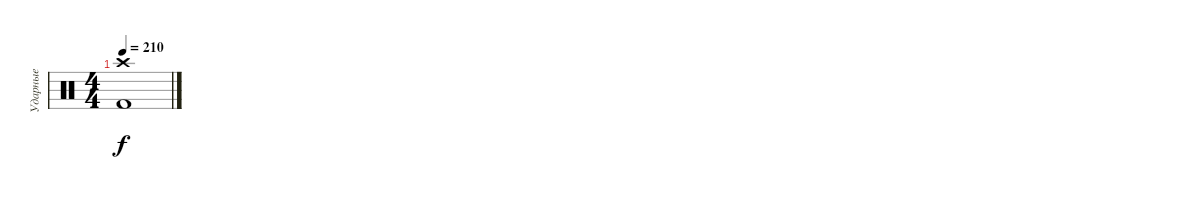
\track ("Ударные" "Ударные") {instrument percussion}
\staff {score}
\articulation defaults
\ts (4 4)
\tempo 210
\clef neutral
\ks c
("Crash high (hit)" "Kick (hit) 2").1{dy f}
